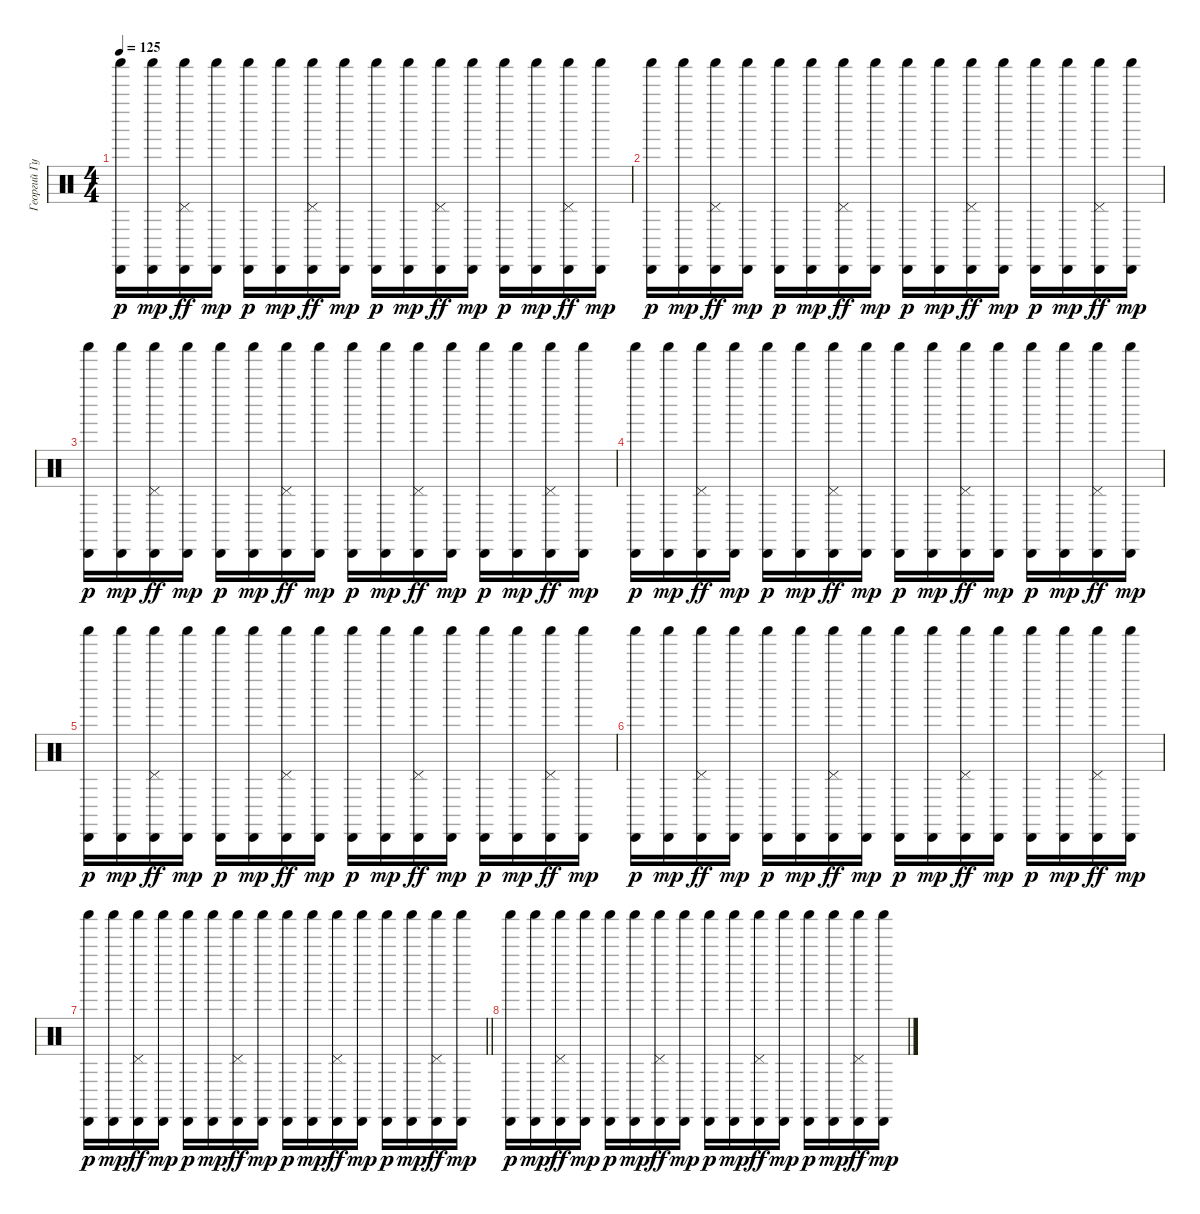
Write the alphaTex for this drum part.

\track ("Георгий Гурьянов_2" "Георгий Гу") {instrument percussion}
\staff {score}
\articulation defaults
\ts (4 4)
\tempo 125
\clef neutral
\ks c
("Cabasa (hit)" "Shaker (hit)").16{dy p} ("Cabasa (hit)" "Shaker (hit)").16{dy mp} ("Cabasa (hit)" "Shaker (hit)" "Pedal Hi-Hat (hit)").16{dy ff} ("Cabasa (hit)" "Shaker (hit)").16{dy mp} ("Cabasa (hit)" "Shaker (hit)").16{dy p} ("Cabasa (hit)" "Shaker (hit)").16{dy mp} ("Cabasa (hit)" "Shaker (hit)" "Pedal Hi-Hat (hit)").16{dy ff} ("Cabasa (hit)" "Shaker (hit)").16{dy mp} ("Cabasa (hit)" "Shaker (hit)").16{dy p} ("Cabasa (hit)" "Shaker (hit)").16{dy mp} ("Cabasa (hit)" "Shaker (hit)" "Pedal Hi-Hat (hit)").16{dy ff} ("Cabasa (hit)" "Shaker (hit)").16{dy mp} ("Cabasa (hit)" "Shaker (hit)").16{dy p} ("Cabasa (hit)" "Shaker (hit)").16{dy mp} ("Cabasa (hit)" "Shaker (hit)" "Pedal Hi-Hat (hit)").16{dy ff} ("Cabasa (hit)" "Shaker (hit)").16{dy mp} |
("Cabasa (hit)" "Shaker (hit)").16{dy p} ("Cabasa (hit)" "Shaker (hit)").16{dy mp} ("Cabasa (hit)" "Shaker (hit)" "Pedal Hi-Hat (hit)").16{dy ff} ("Cabasa (hit)" "Shaker (hit)").16{dy mp} ("Cabasa (hit)" "Shaker (hit)").16{dy p} ("Cabasa (hit)" "Shaker (hit)").16{dy mp} ("Cabasa (hit)" "Shaker (hit)" "Pedal Hi-Hat (hit)").16{dy ff} ("Cabasa (hit)" "Shaker (hit)").16{dy mp} ("Cabasa (hit)" "Shaker (hit)").16{dy p} ("Cabasa (hit)" "Shaker (hit)").16{dy mp} ("Cabasa (hit)" "Shaker (hit)" "Pedal Hi-Hat (hit)").16{dy ff} ("Cabasa (hit)" "Shaker (hit)").16{dy mp} ("Cabasa (hit)" "Shaker (hit)").16{dy p} ("Cabasa (hit)" "Shaker (hit)").16{dy mp} ("Cabasa (hit)" "Shaker (hit)" "Pedal Hi-Hat (hit)").16{dy ff} ("Cabasa (hit)" "Shaker (hit)").16{dy mp} |
("Cabasa (hit)" "Shaker (hit)").16{dy p} ("Cabasa (hit)" "Shaker (hit)").16{dy mp} ("Cabasa (hit)" "Shaker (hit)" "Pedal Hi-Hat (hit)").16{dy ff} ("Cabasa (hit)" "Shaker (hit)").16{dy mp} ("Cabasa (hit)" "Shaker (hit)").16{dy p} ("Cabasa (hit)" "Shaker (hit)").16{dy mp} ("Cabasa (hit)" "Shaker (hit)" "Pedal Hi-Hat (hit)").16{dy ff} ("Cabasa (hit)" "Shaker (hit)").16{dy mp} ("Cabasa (hit)" "Shaker (hit)").16{dy p} ("Cabasa (hit)" "Shaker (hit)").16{dy mp} ("Cabasa (hit)" "Shaker (hit)" "Pedal Hi-Hat (hit)").16{dy ff} ("Cabasa (hit)" "Shaker (hit)").16{dy mp} ("Cabasa (hit)" "Shaker (hit)").16{dy p} ("Cabasa (hit)" "Shaker (hit)").16{dy mp} ("Cabasa (hit)" "Shaker (hit)" "Pedal Hi-Hat (hit)").16{dy ff} ("Cabasa (hit)" "Shaker (hit)").16{dy mp} |
("Cabasa (hit)" "Shaker (hit)").16{dy p} ("Cabasa (hit)" "Shaker (hit)").16{dy mp} ("Cabasa (hit)" "Shaker (hit)" "Pedal Hi-Hat (hit)").16{dy ff} ("Cabasa (hit)" "Shaker (hit)").16{dy mp} ("Cabasa (hit)" "Shaker (hit)").16{dy p} ("Cabasa (hit)" "Shaker (hit)").16{dy mp} ("Cabasa (hit)" "Shaker (hit)" "Pedal Hi-Hat (hit)").16{dy ff} ("Cabasa (hit)" "Shaker (hit)").16{dy mp} ("Cabasa (hit)" "Shaker (hit)").16{dy p} ("Cabasa (hit)" "Shaker (hit)").16{dy mp} ("Cabasa (hit)" "Shaker (hit)" "Pedal Hi-Hat (hit)").16{dy ff} ("Cabasa (hit)" "Shaker (hit)").16{dy mp} ("Cabasa (hit)" "Shaker (hit)").16{dy p} ("Cabasa (hit)" "Shaker (hit)").16{dy mp} ("Cabasa (hit)" "Shaker (hit)" "Pedal Hi-Hat (hit)").16{dy ff} ("Cabasa (hit)" "Shaker (hit)").16{dy mp} |
("Cabasa (hit)" "Shaker (hit)").16{dy p} ("Cabasa (hit)" "Shaker (hit)").16{dy mp} ("Cabasa (hit)" "Shaker (hit)" "Pedal Hi-Hat (hit)").16{dy ff} ("Cabasa (hit)" "Shaker (hit)").16{dy mp} ("Cabasa (hit)" "Shaker (hit)").16{dy p} ("Cabasa (hit)" "Shaker (hit)").16{dy mp} ("Cabasa (hit)" "Shaker (hit)" "Pedal Hi-Hat (hit)").16{dy ff} ("Cabasa (hit)" "Shaker (hit)").16{dy mp} ("Cabasa (hit)" "Shaker (hit)").16{dy p} ("Cabasa (hit)" "Shaker (hit)").16{dy mp} ("Cabasa (hit)" "Shaker (hit)" "Pedal Hi-Hat (hit)").16{dy ff} ("Cabasa (hit)" "Shaker (hit)").16{dy mp} ("Cabasa (hit)" "Shaker (hit)").16{dy p} ("Cabasa (hit)" "Shaker (hit)").16{dy mp} ("Cabasa (hit)" "Shaker (hit)" "Pedal Hi-Hat (hit)").16{dy ff} ("Cabasa (hit)" "Shaker (hit)").16{dy mp} |
("Cabasa (hit)" "Shaker (hit)").16{dy p} ("Cabasa (hit)" "Shaker (hit)").16{dy mp} ("Cabasa (hit)" "Shaker (hit)" "Pedal Hi-Hat (hit)").16{dy ff} ("Cabasa (hit)" "Shaker (hit)").16{dy mp} ("Cabasa (hit)" "Shaker (hit)").16{dy p} ("Cabasa (hit)" "Shaker (hit)").16{dy mp} ("Cabasa (hit)" "Shaker (hit)" "Pedal Hi-Hat (hit)").16{dy ff} ("Cabasa (hit)" "Shaker (hit)").16{dy mp} ("Cabasa (hit)" "Shaker (hit)").16{dy p} ("Cabasa (hit)" "Shaker (hit)").16{dy mp} ("Cabasa (hit)" "Shaker (hit)" "Pedal Hi-Hat (hit)").16{dy ff} ("Cabasa (hit)" "Shaker (hit)").16{dy mp} ("Cabasa (hit)" "Shaker (hit)").16{dy p} ("Cabasa (hit)" "Shaker (hit)").16{dy mp} ("Cabasa (hit)" "Shaker (hit)" "Pedal Hi-Hat (hit)").16{dy ff} ("Cabasa (hit)" "Shaker (hit)").16{dy mp} |
\barLineRight lightlight
("Cabasa (hit)" "Shaker (hit)").16{dy p} ("Cabasa (hit)" "Shaker (hit)").16{dy mp} ("Cabasa (hit)" "Shaker (hit)" "Pedal Hi-Hat (hit)").16{dy ff} ("Cabasa (hit)" "Shaker (hit)").16{dy mp} ("Cabasa (hit)" "Shaker (hit)").16{dy p} ("Cabasa (hit)" "Shaker (hit)").16{dy mp} ("Cabasa (hit)" "Shaker (hit)" "Pedal Hi-Hat (hit)").16{dy ff} ("Cabasa (hit)" "Shaker (hit)").16{dy mp} ("Cabasa (hit)" "Shaker (hit)").16{dy p} ("Cabasa (hit)" "Shaker (hit)").16{dy mp} ("Cabasa (hit)" "Shaker (hit)" "Pedal Hi-Hat (hit)").16{dy ff} ("Cabasa (hit)" "Shaker (hit)").16{dy mp} ("Cabasa (hit)" "Shaker (hit)").16{dy p} ("Cabasa (hit)" "Shaker (hit)").16{dy mp} ("Cabasa (hit)" "Shaker (hit)" "Pedal Hi-Hat (hit)").16{dy ff} ("Cabasa (hit)" "Shaker (hit)").16{dy mp} |
("Cabasa (hit)" "Shaker (hit)").16{dy p} ("Cabasa (hit)" "Shaker (hit)").16{dy mp} ("Cabasa (hit)" "Shaker (hit)" "Pedal Hi-Hat (hit)").16{dy ff} ("Cabasa (hit)" "Shaker (hit)").16{dy mp} ("Cabasa (hit)" "Shaker (hit)").16{dy p} ("Cabasa (hit)" "Shaker (hit)").16{dy mp} ("Cabasa (hit)" "Shaker (hit)" "Pedal Hi-Hat (hit)").16{dy ff} ("Cabasa (hit)" "Shaker (hit)").16{dy mp} ("Cabasa (hit)" "Shaker (hit)").16{dy p} ("Cabasa (hit)" "Shaker (hit)").16{dy mp} ("Cabasa (hit)" "Shaker (hit)" "Pedal Hi-Hat (hit)").16{dy ff} ("Cabasa (hit)" "Shaker (hit)").16{dy mp} ("Cabasa (hit)" "Shaker (hit)").16{dy p} ("Cabasa (hit)" "Shaker (hit)").16{dy mp} ("Cabasa (hit)" "Shaker (hit)" "Pedal Hi-Hat (hit)").16{dy ff} ("Cabasa (hit)" "Shaker (hit)").16{dy mp}
